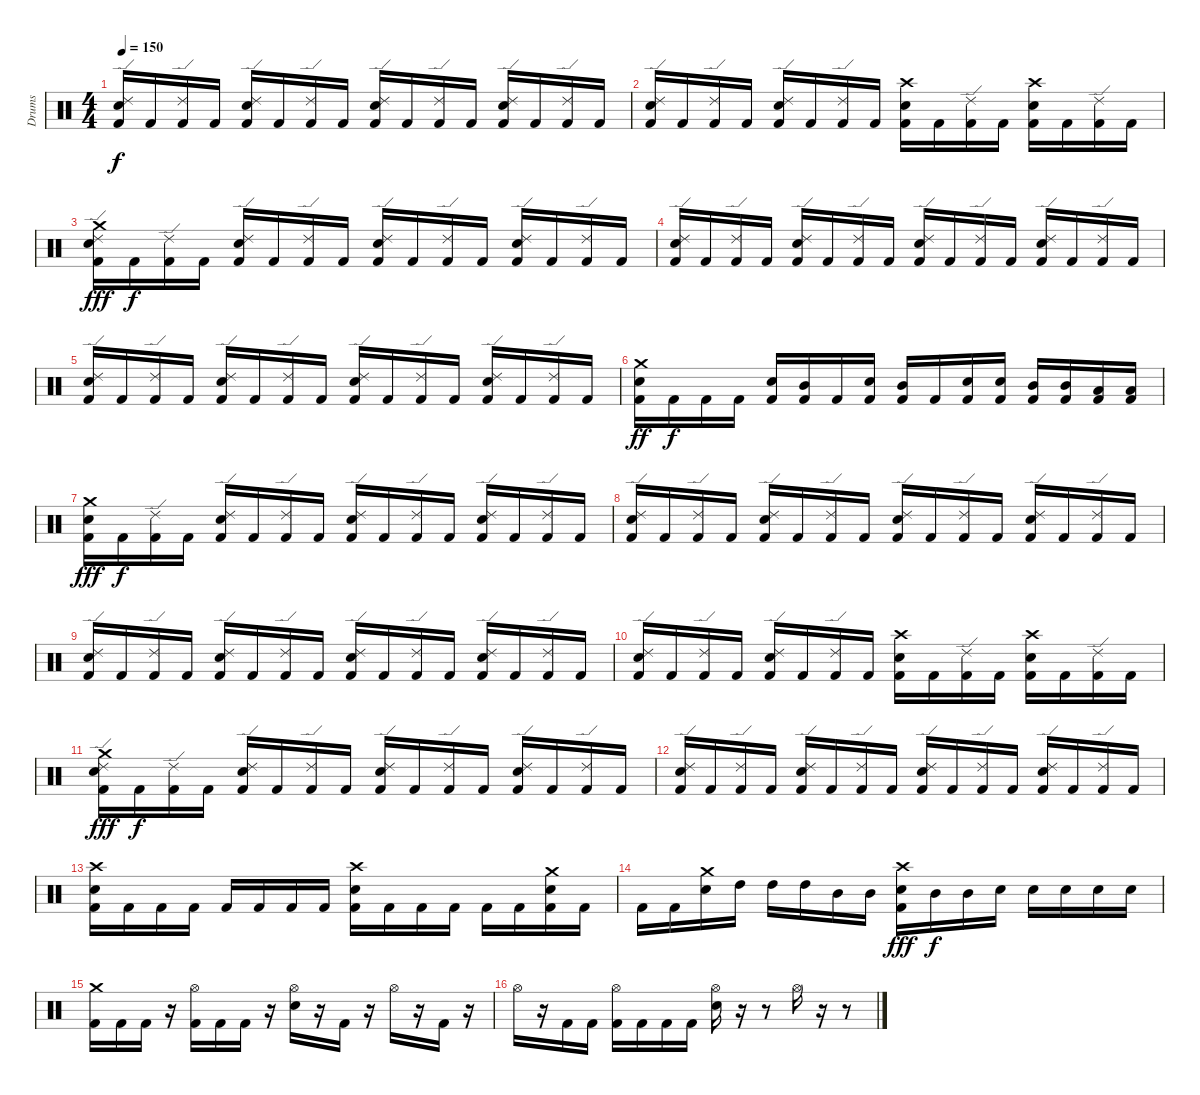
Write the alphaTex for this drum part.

\track ("Drums" "Drums") {instrument percussion}
\staff {score}
\articulation defaults
\ts (4 4)
\tempo 150
\clef neutral
\ks c
("Ride (edge) 2" "Electric Snare (hit)" "Kick (hit) 2").16{dy f} "Kick (hit) 2".16 ("Ride (edge) 2" "Kick (hit) 2").16 "Kick (hit) 2".16 ("Ride (edge) 2" "Electric Snare (hit)" "Kick (hit) 2").16 "Kick (hit) 2".16 ("Ride (edge) 2" "Kick (hit) 2").16 "Kick (hit) 2".16 ("Ride (edge) 2" "Electric Snare (hit)" "Kick (hit) 2").16 "Kick (hit) 2".16 ("Ride (edge) 2" "Kick (hit) 2").16 "Kick (hit) 2".16 ("Ride (edge) 2" "Electric Snare (hit)" "Kick (hit) 2").16 "Kick (hit) 2".16 ("Ride (edge) 2" "Kick (hit) 2").16 "Kick (hit) 2".16 |
("Ride (edge) 2" "Electric Snare (hit)" "Kick (hit) 2").16 "Kick (hit) 2".16 ("Ride (edge) 2" "Kick (hit) 2").16 "Kick (hit) 2".16 ("Ride (edge) 2" "Electric Snare (hit)" "Kick (hit) 2").16 "Kick (hit) 2".16 ("Ride (edge) 2" "Kick (hit) 2").16 "Kick (hit) 2".16 ("Crash high (hit)" "Electric Snare (hit)" "Kick (hit) 2").16 "Kick (hit) 2".16 ("Ride (edge) 2" "Kick (hit) 2").16 "Kick (hit) 2".16 ("Crash high (hit)" "Electric Snare (hit)" "Kick (hit) 2").16 "Kick (hit) 2".16 ("Ride (edge) 2" "Kick (hit) 2").16 "Kick (hit) 2".16 |
("Crash medium (hit)" "Ride (edge) 2" "Electric Snare (hit)" "Kick (hit) 2").16{dy fff} "Kick (hit) 2".16{dy f} ("Ride (edge) 2" "Kick (hit) 2").16 "Kick (hit) 2".16 ("Ride (edge) 2" "Electric Snare (hit)" "Kick (hit) 2").16 "Kick (hit) 2".16 ("Ride (edge) 2" "Kick (hit) 2").16 "Kick (hit) 2".16 ("Ride (edge) 2" "Electric Snare (hit)" "Kick (hit) 2").16 "Kick (hit) 2".16 ("Ride (edge) 2" "Kick (hit) 2").16 "Kick (hit) 2".16 ("Ride (edge) 2" "Electric Snare (hit)" "Kick (hit) 2").16 "Kick (hit) 2".16 ("Ride (edge) 2" "Kick (hit) 2").16 "Kick (hit) 2".16 |
("Ride (edge) 2" "Electric Snare (hit)" "Kick (hit) 2").16 "Kick (hit) 2".16 ("Ride (edge) 2" "Kick (hit) 2").16 "Kick (hit) 2".16 ("Ride (edge) 2" "Electric Snare (hit)" "Kick (hit) 2").16 "Kick (hit) 2".16 ("Ride (edge) 2" "Kick (hit) 2").16 "Kick (hit) 2".16 ("Ride (edge) 2" "Electric Snare (hit)" "Kick (hit) 2").16 "Kick (hit) 2".16 ("Ride (edge) 2" "Kick (hit) 2").16 "Kick (hit) 2".16 ("Ride (edge) 2" "Electric Snare (hit)" "Kick (hit) 2").16 "Kick (hit) 2".16 ("Ride (edge) 2" "Kick (hit) 2").16 "Kick (hit) 2".16 |
("Ride (edge) 2" "Electric Snare (hit)" "Kick (hit) 2").16 "Kick (hit) 2".16 ("Ride (edge) 2" "Kick (hit) 2").16 "Kick (hit) 2".16 ("Ride (edge) 2" "Electric Snare (hit)" "Kick (hit) 2").16 "Kick (hit) 2".16 ("Ride (edge) 2" "Kick (hit) 2").16 "Kick (hit) 2".16 ("Ride (edge) 2" "Electric Snare (hit)" "Kick (hit) 2").16 "Kick (hit) 2".16 ("Ride (edge) 2" "Kick (hit) 2").16 "Kick (hit) 2".16 ("Ride (edge) 2" "Electric Snare (hit)" "Kick (hit) 2").16 "Kick (hit) 2".16 ("Ride (edge) 2" "Kick (hit) 2").16 "Kick (hit) 2".16 |
("Crash medium (hit)" "Electric Snare (hit)" "Kick (hit) 2").16{dy ff} "Kick (hit) 2".16{dy f} "Kick (hit) 2".16 "Kick (hit) 2".16 ("Electric Snare (hit)" "Kick (hit) 2").16 ("Mid Tom (hit)" "Kick (hit) 2").16 "Kick (hit) 2".16 ("Electric Snare (hit)" "Kick (hit) 2").16 ("Mid Tom (hit)" "Kick (hit) 2").16 "Kick (hit) 2".16 ("Electric Snare (hit)" "Kick (hit) 2").16 ("Electric Snare (hit)" "Kick (hit) 2").16 ("Mid Tom (hit)" "Kick (hit) 2").16 ("Mid Tom (hit)" "Kick (hit) 2").16 ("Low Tom (hit)" "Kick (hit) 2").16 ("Low Tom (hit)" "Kick (hit) 2").16 |
("Crash medium (hit)" "Electric Snare (hit)" "Kick (hit) 2").16{dy fff} "Kick (hit) 2".16{dy f} ("Ride (edge) 2" "Kick (hit) 2").16 "Kick (hit) 2".16 ("Ride (edge) 2" "Electric Snare (hit)" "Kick (hit) 2").16 "Kick (hit) 2".16 ("Ride (edge) 2" "Kick (hit) 2").16 "Kick (hit) 2".16 ("Ride (edge) 2" "Electric Snare (hit)" "Kick (hit) 2").16 "Kick (hit) 2".16 ("Ride (edge) 2" "Kick (hit) 2").16 "Kick (hit) 2".16 ("Ride (edge) 2" "Electric Snare (hit)" "Kick (hit) 2").16 "Kick (hit) 2".16 ("Ride (edge) 2" "Kick (hit) 2").16 "Kick (hit) 2".16 |
("Ride (edge) 2" "Electric Snare (hit)" "Kick (hit) 2").16 "Kick (hit) 2".16 ("Ride (edge) 2" "Kick (hit) 2").16 "Kick (hit) 2".16 ("Ride (edge) 2" "Electric Snare (hit)" "Kick (hit) 2").16 "Kick (hit) 2".16 ("Ride (edge) 2" "Kick (hit) 2").16 "Kick (hit) 2".16 ("Ride (edge) 2" "Electric Snare (hit)" "Kick (hit) 2").16 "Kick (hit) 2".16 ("Ride (edge) 2" "Kick (hit) 2").16 "Kick (hit) 2".16 ("Ride (edge) 2" "Electric Snare (hit)" "Kick (hit) 2").16 "Kick (hit) 2".16 ("Ride (edge) 2" "Kick (hit) 2").16 "Kick (hit) 2".16 |
("Ride (edge) 2" "Electric Snare (hit)" "Kick (hit) 2").16 "Kick (hit) 2".16 ("Ride (edge) 2" "Kick (hit) 2").16 "Kick (hit) 2".16 ("Ride (edge) 2" "Electric Snare (hit)" "Kick (hit) 2").16 "Kick (hit) 2".16 ("Ride (edge) 2" "Kick (hit) 2").16 "Kick (hit) 2".16 ("Ride (edge) 2" "Electric Snare (hit)" "Kick (hit) 2").16 "Kick (hit) 2".16 ("Ride (edge) 2" "Kick (hit) 2").16 "Kick (hit) 2".16 ("Ride (edge) 2" "Electric Snare (hit)" "Kick (hit) 2").16 "Kick (hit) 2".16 ("Ride (edge) 2" "Kick (hit) 2").16 "Kick (hit) 2".16 |
("Ride (edge) 2" "Electric Snare (hit)" "Kick (hit) 2").16 "Kick (hit) 2".16 ("Ride (edge) 2" "Kick (hit) 2").16 "Kick (hit) 2".16 ("Ride (edge) 2" "Electric Snare (hit)" "Kick (hit) 2").16 "Kick (hit) 2".16 ("Ride (edge) 2" "Kick (hit) 2").16 "Kick (hit) 2".16 ("Crash high (hit)" "Electric Snare (hit)" "Kick (hit) 2").16 "Kick (hit) 2".16 ("Ride (edge) 2" "Kick (hit) 2").16 "Kick (hit) 2".16 ("Crash high (hit)" "Electric Snare (hit)" "Kick (hit) 2").16 "Kick (hit) 2".16 ("Ride (edge) 2" "Kick (hit) 2").16 "Kick (hit) 2".16 |
("Crash medium (hit)" "Ride (edge) 2" "Electric Snare (hit)" "Kick (hit) 2").16{dy fff} "Kick (hit) 2".16{dy f} ("Ride (edge) 2" "Kick (hit) 2").16 "Kick (hit) 2".16 ("Ride (edge) 2" "Electric Snare (hit)" "Kick (hit) 2").16 "Kick (hit) 2".16 ("Ride (edge) 2" "Kick (hit) 2").16 "Kick (hit) 2".16 ("Ride (edge) 2" "Electric Snare (hit)" "Kick (hit) 2").16 "Kick (hit) 2".16 ("Ride (edge) 2" "Kick (hit) 2").16 "Kick (hit) 2".16 ("Ride (edge) 2" "Electric Snare (hit)" "Kick (hit) 2").16 "Kick (hit) 2".16 ("Ride (edge) 2" "Kick (hit) 2").16 "Kick (hit) 2".16 |
("Ride (edge) 2" "Electric Snare (hit)" "Kick (hit) 2").16 "Kick (hit) 2".16 ("Ride (edge) 2" "Kick (hit) 2").16 "Kick (hit) 2".16 ("Ride (edge) 2" "Electric Snare (hit)" "Kick (hit) 2").16 "Kick (hit) 2".16 ("Ride (edge) 2" "Kick (hit) 2").16 "Kick (hit) 2".16 ("Ride (edge) 2" "Electric Snare (hit)" "Kick (hit) 2").16 "Kick (hit) 2".16 ("Ride (edge) 2" "Kick (hit) 2").16 "Kick (hit) 2".16 ("Ride (edge) 2" "Electric Snare (hit)" "Kick (hit) 2").16 "Kick (hit) 2".16 ("Ride (edge) 2" "Kick (hit) 2").16 "Kick (hit) 2".16 |
("Crash high (hit)" "Electric Snare (hit)" "Kick (hit) 2").16 "Kick (hit) 2".16 "Kick (hit) 2".16 "Kick (hit) 2".16 "Kick (hit) 2".16 "Kick (hit) 2".16 "Kick (hit) 2".16 "Kick (hit) 2".16 ("Crash high (hit)" "Electric Snare (hit)" "Kick (hit) 2").16 "Kick (hit) 2".16 "Kick (hit) 2".16 "Kick (hit) 2".16 "Kick (hit) 2".16 "Kick (hit) 2".16 ("Crash medium (hit)" "Electric Snare (hit)" "Kick (hit) 2").16 "Kick (hit) 2".16 |
"Kick (hit) 2".16 "Kick (hit) 2".16 ("Crash medium (hit)" "Electric Snare (hit)").16 "High Tom (hit)".16 "High Tom (hit)".16 "High Tom (hit)".16 "Mid Tom (hit)".16 "Mid Tom (hit)".16 ("Crash high (hit)" "Electric Snare (hit)" "Kick (hit) 2").16{dy fff} "Mid Tom (hit)".16{dy f} "Mid Tom (hit)".16 "Electric Snare (hit)".16 "Electric Snare (hit)".16 "Electric Snare (hit)".16 "Electric Snare (hit)".16 "Electric Snare (hit)".16 |
("Crash medium (hit)" "Kick (hit) 2").16 "Kick (hit) 2".16 "Kick (hit) 2".16 r.16 ("Hi-Hat (open)" "Kick (hit) 2").16 "Kick (hit) 2".16 "Kick (hit) 2".16 r.16 ("Hi-Hat (open)" "Electric Snare (hit)").16 r.16 "Kick (hit) 2".16 r.16 "Hi-Hat (open)".16 r.16 "Kick (hit) 2".16 r.16 |
"Hi-Hat (open)".16 r.16 "Kick (hit) 2".16 "Kick (hit) 2".16 ("Hi-Hat (open)" "Kick (hit) 2").16 "Kick (hit) 2".16 "Kick (hit) 2".16 "Kick (hit) 2".16 ("Hi-Hat (open)" "Electric Snare (hit)").16 r.16 r.8 "Hi-Hat (open)".16 r.16 r.8
